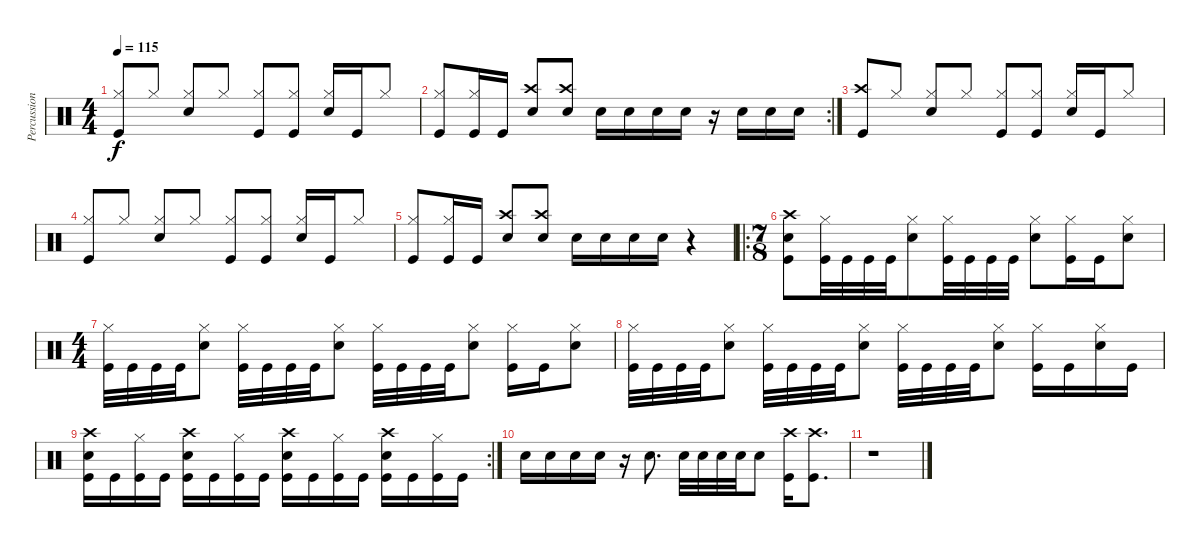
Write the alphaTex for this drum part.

\track ("Percussion" "Percussion") {instrument percussion}
\staff {score}
\articulation defaults
\ts (4 4)
\tempo 115
\clef neutral
\ks c
("Hi-Hat (closed)" "Kick (hit)").8{dy f beam Up} "Hi-Hat (closed)".8{beam Up} ("Hi-Hat (closed)" "Snare (hit) 2").8{beam Up} "Hi-Hat (closed)".8{beam Up} ("Hi-Hat (closed)" "Kick (hit)").8{beam Up} ("Hi-Hat (closed)" "Kick (hit)").8{beam Up} ("Hi-Hat (closed)" "Snare (hit) 2").16{beam Up} "Kick (hit)".16{beam Up} "Hi-Hat (closed)".8{beam Up} |
\rc 2
("Hi-Hat (closed)" "Kick (hit)").8{beam Up} ("Hi-Hat (closed)" "Kick (hit)").16{beam Up} "Kick (hit)".16{beam Up} ("Crash high (hit)" "Snare (hit) 2").8{beam Up} ("Crash high (hit)" "Snare (hit) 2").8{beam Up} "Snare (hit) 2".16 "Snare (hit) 2".16 "Snare (hit) 2".16 "Snare (hit) 2".16 r.16 "Snare (hit) 2".16 "Snare (hit) 2".16 "Snare (hit) 2".16 |
("Crash high (hit)" "Kick (hit)").8{beam Up} "Hi-Hat (closed)".8{beam Up} ("Hi-Hat (closed)" "Snare (hit) 2").8{beam Up} "Hi-Hat (closed)".8{beam Up} ("Hi-Hat (closed)" "Kick (hit)").8{beam Up} ("Hi-Hat (closed)" "Kick (hit)").8{beam Up} ("Hi-Hat (closed)" "Snare (hit) 2").16{beam Up} "Kick (hit)".16{beam Up} "Hi-Hat (closed)".8{beam Up} |
("Hi-Hat (closed)" "Kick (hit)").8{beam Up} "Hi-Hat (closed)".8{beam Up} ("Hi-Hat (closed)" "Snare (hit) 2").8{beam Up} "Hi-Hat (closed)".8{beam Up} ("Hi-Hat (closed)" "Kick (hit)").8{beam Up} ("Hi-Hat (closed)" "Kick (hit)").8{beam Up} ("Hi-Hat (closed)" "Snare (hit) 2").16{beam Up} "Kick (hit)".16{beam Up} "Hi-Hat (closed)".8{beam Up} |
("Hi-Hat (closed)" "Kick (hit)").8{beam Up} ("Hi-Hat (closed)" "Kick (hit)").16{beam Up} "Kick (hit)".16{beam Up} ("Crash high (hit)" "Snare (hit) 2").8{beam Up} ("Crash high (hit)" "Snare (hit) 2").8{beam Up} "Snare (hit) 2".16 "Snare (hit) 2".16 "Snare (hit) 2".16 "Snare (hit) 2".16 r.4 |
\ro
\ts (7 8)
("Crash high (hit)" "Snare (hit) 2" "Kick (hit)").8 ("Hi-Hat (closed)" "Kick (hit)").32 "Kick (hit)".32 "Kick (hit)".32 "Kick (hit)".32 ("Hi-Hat (closed)" "Snare (hit) 2").8 ("Hi-Hat (closed)" "Kick (hit)").32 "Kick (hit)".32 "Kick (hit)".32 "Kick (hit)".32 ("Hi-Hat (closed)" "Snare (hit) 2").8 ("Hi-Hat (closed)" "Kick (hit)").16 "Kick (hit)".16 ("Hi-Hat (closed)" "Snare (hit) 2").8 |
\ts (4 4)
("Hi-Hat (closed)" "Kick (hit)").32 "Kick (hit)".32 "Kick (hit)".32 "Kick (hit)".32 ("Hi-Hat (closed)" "Snare (hit) 2").8 ("Hi-Hat (closed)" "Kick (hit)").32 "Kick (hit)".32 "Kick (hit)".32 "Kick (hit)".32 ("Hi-Hat (closed)" "Snare (hit) 2").8 ("Hi-Hat (closed)" "Kick (hit)").32 "Kick (hit)".32 "Kick (hit)".32 "Kick (hit)".32 ("Hi-Hat (closed)" "Snare (hit) 2").8 ("Hi-Hat (closed)" "Kick (hit)").16 "Kick (hit)".16 ("Hi-Hat (closed)" "Snare (hit) 2").8 |
("Hi-Hat (closed)" "Kick (hit)").32 "Kick (hit)".32 "Kick (hit)".32 "Kick (hit)".32 ("Hi-Hat (closed)" "Snare (hit) 2").8 ("Hi-Hat (closed)" "Kick (hit)").32 "Kick (hit)".32 "Kick (hit)".32 "Kick (hit)".32 ("Hi-Hat (closed)" "Snare (hit) 2").8 ("Hi-Hat (closed)" "Kick (hit)").32 "Kick (hit)".32 "Kick (hit)".32 "Kick (hit)".32 ("Hi-Hat (closed)" "Snare (hit) 2").8 ("Hi-Hat (closed)" "Kick (hit)").16 "Kick (hit)".16 ("Hi-Hat (closed)" "Snare (hit) 2").16 "Kick (hit)".16 |
\rc 2
("Kick (hit)" "Crash high (hit)" "Snare (hit) 2").16 "Kick (hit)".16 ("Kick (hit)" "Hi-Hat (closed)").16 "Kick (hit)".16 ("Kick (hit)" "Crash high (hit)" "Snare (hit) 2").16 "Kick (hit)".16 ("Kick (hit)" "Hi-Hat (closed)").16 "Kick (hit)".16 ("Crash high (hit)" "Kick (hit)" "Snare (hit) 2").16 "Kick (hit)".16 ("Kick (hit)" "Hi-Hat (closed)").16 "Kick (hit)".16 ("Kick (hit)" "Crash high (hit)" "Snare (hit) 2").16 "Kick (hit)".16 ("Kick (hit)" "Hi-Hat (closed)").16 "Kick (hit)".16 |
"Snare (hit) 2".16 "Snare (hit) 2".16 "Snare (hit) 2".16 "Snare (hit) 2".16 r.16 "Snare (hit) 2".8{d} "Snare (hit) 2".32 "Snare (hit) 2".32 "Snare (hit) 2".32 "Snare (hit) 2".32 "Snare (hit) 2".8 ("Crash high (hit)" "Kick (hit)").16 ("Crash high (hit)" "Kick (hit)").8{d} |
r.1
